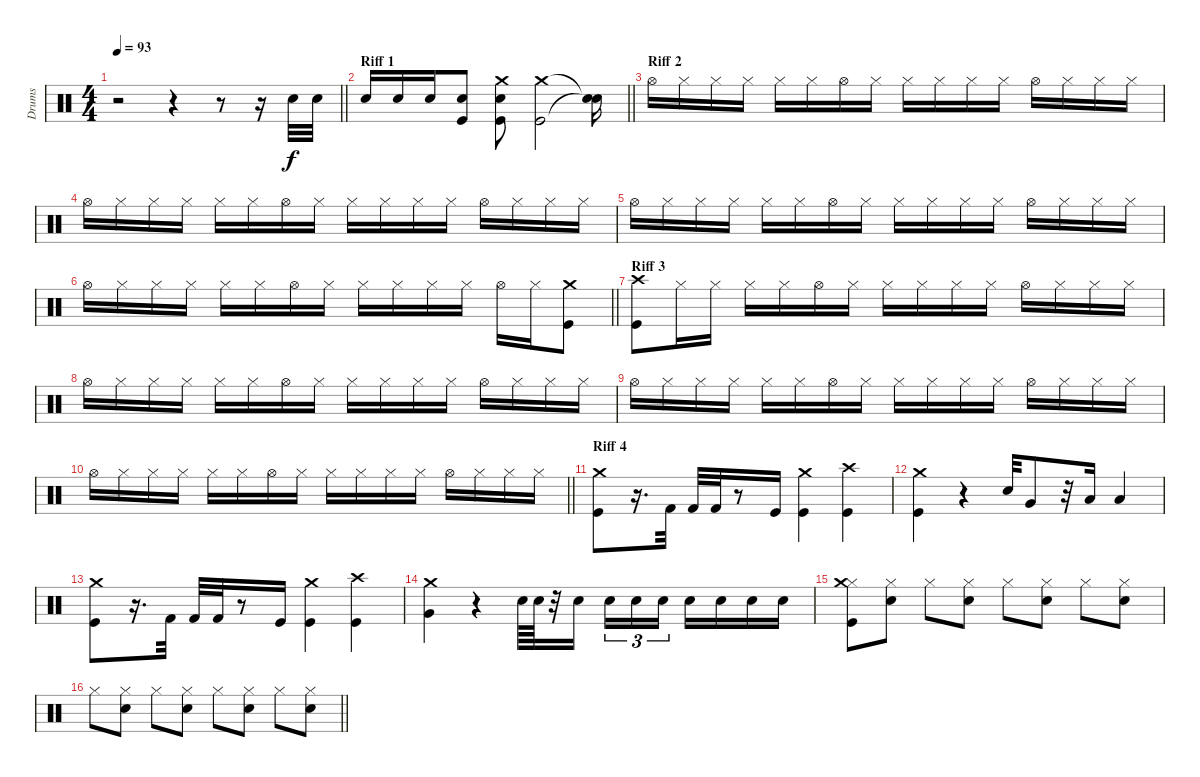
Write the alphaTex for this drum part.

\track ("Drums" "Drums") {instrument percussion}
\staff {score}
\articulation defaults
\ts (4 4)
\tempo 93
\clef neutral
\barLineRight lightlight
\ks c
r.2{dy f} r.4 r.8 r.16 "Electric Snare (hit)".32 "Electric Snare (hit)".32 |
\section ("" "Riff 1")
\barLineRight lightlight "Electric Snare (hit)".16 "Electric Snare (hit)".16 "Electric Snare (hit)".16
("Electric Snare (hit)" "Kick (hit)").8 ("Electric Snare (hit)" "Kick (hit)" "Crash medium (hit)").8 ("Kick (hit)" "Crash medium (hit)").2 ("Snare (hit)"{t} "Snare (hit)"{t}).16 |
\section ("" "Riff 2")
"Hi-Hat (open)".16 "Hi-Hat (closed)".16 "Hi-Hat (closed)".16 "Hi-Hat (closed)".16 "Hi-Hat (closed)".16 "Hi-Hat (closed)".16 "Hi-Hat (open)".16 "Hi-Hat (closed)".16 "Hi-Hat (closed)".16 "Hi-Hat (closed)".16 "Hi-Hat (closed)".16 "Hi-Hat (closed)".16 "Hi-Hat (open)".16 "Hi-Hat (closed)".16 "Hi-Hat (closed)".16 "Hi-Hat (closed)".16 |
"Hi-Hat (open)".16 "Hi-Hat (closed)".16 "Hi-Hat (closed)".16 "Hi-Hat (closed)".16 "Hi-Hat (closed)".16 "Hi-Hat (closed)".16 "Hi-Hat (open)".16 "Hi-Hat (closed)".16 "Hi-Hat (closed)".16 "Hi-Hat (closed)".16 "Hi-Hat (closed)".16 "Hi-Hat (closed)".16 "Hi-Hat (open)".16 "Hi-Hat (closed)".16 "Hi-Hat (closed)".16 "Hi-Hat (closed)".16 |
"Hi-Hat (open)".16 "Hi-Hat (closed)".16 "Hi-Hat (closed)".16 "Hi-Hat (closed)".16 "Hi-Hat (closed)".16 "Hi-Hat (closed)".16 "Hi-Hat (open)".16 "Hi-Hat (closed)".16 "Hi-Hat (closed)".16 "Hi-Hat (closed)".16 "Hi-Hat (closed)".16 "Hi-Hat (closed)".16 "Hi-Hat (open)".16 "Hi-Hat (closed)".16 "Hi-Hat (closed)".16 "Hi-Hat (closed)".16 |
\barLineRight lightlight "Hi-Hat (open)".16 "Hi-Hat (closed)".16 "Hi-Hat (closed)".16 "Hi-Hat (closed)".16 "Hi-Hat (closed)".16 "Hi-Hat (closed)".16 "Hi-Hat (open)".16 "Hi-Hat (closed)".16 "Hi-Hat (closed)".16 "Hi-Hat (closed)".16 "Hi-Hat (closed)".16 "Hi-Hat (closed)".16 "Hi-Hat (open)".16 "Hi-Hat (closed)".16
("Kick (hit)" "Crash medium (hit)").8 |
\section ("" "Riff 3")
("Kick (hit)" "Crash high (hit)").8 "Hi-Hat (closed)".16 "Hi-Hat (closed)".16 "Hi-Hat (closed)".16 "Hi-Hat (closed)".16 "Hi-Hat (open)".16 "Hi-Hat (closed)".16 "Hi-Hat (closed)".16 "Hi-Hat (closed)".16 "Hi-Hat (closed)".16 "Hi-Hat (closed)".16 "Hi-Hat (open)".16 "Hi-Hat (closed)".16 "Hi-Hat (closed)".16 "Hi-Hat (closed)".16 |
"Hi-Hat (open)".16 "Hi-Hat (closed)".16 "Hi-Hat (closed)".16 "Hi-Hat (closed)".16 "Hi-Hat (closed)".16 "Hi-Hat (closed)".16 "Hi-Hat (open)".16 "Hi-Hat (closed)".16 "Hi-Hat (closed)".16 "Hi-Hat (closed)".16 "Hi-Hat (closed)".16 "Hi-Hat (closed)".16 "Hi-Hat (open)".16 "Hi-Hat (closed)".16 "Hi-Hat (closed)".16 "Hi-Hat (closed)".16 |
"Hi-Hat (open)".16 "Hi-Hat (closed)".16 "Hi-Hat (closed)".16 "Hi-Hat (closed)".16 "Hi-Hat (closed)".16 "Hi-Hat (closed)".16 "Hi-Hat (open)".16 "Hi-Hat (closed)".16 "Hi-Hat (closed)".16 "Hi-Hat (closed)".16 "Hi-Hat (closed)".16 "Hi-Hat (closed)".16 "Hi-Hat (open)".16 "Hi-Hat (closed)".16 "Hi-Hat (closed)".16 "Hi-Hat (closed)".16 |
\barLineRight lightlight "Hi-Hat (open)".16 "Hi-Hat (closed)".16 "Hi-Hat (closed)".16 "Hi-Hat (closed)".16 "Hi-Hat (closed)".16 "Hi-Hat (closed)".16 "Hi-Hat (open)".16 "Hi-Hat (closed)".16 "Hi-Hat (closed)".16 "Hi-Hat (closed)".16 "Hi-Hat (closed)".16 "Hi-Hat (closed)".16 "Hi-Hat (open)".16 "Hi-Hat (closed)".16 "Hi-Hat (closed)".16 "Hi-Hat (closed)".16
|
\section ("" "Riff 4")
("Kick (hit)" "Crash medium (hit)").8 r.16{d} "Kick (hit) 2".32 "Kick (hit) 2".32 "Kick (hit) 2".32 r.8 "Kick (hit)".16 ("Kick (hit)" "Crash medium (hit)").4 ("Kick (hit)" "Crash high (hit)").4 |
("Kick (hit)" "Crash medium (hit)").4 r.4 "Snare (hit) 2".32 "Very Low Tom (hit)".8 r.32 "Low Tom (hit)".16 "Low Floor Tom (hit)".4 |
("Kick (hit)" "Crash medium (hit)").8 r.16{d} "Kick (hit) 2".32 "Kick (hit) 2".32 "Kick (hit) 2".32 r.8 "Kick (hit)".16 ("Kick (hit)" "Crash medium (hit)").4 ("Kick (hit)" "Crash high (hit)").4 |
("Crash medium (hit)" "Very Low Tom (hit)").4 r.4 "Electric Snare (hit)".64 "Electric Snare (hit)".64 r.32 "Electric Snare (hit)".16{beam splitsecondary} "Electric Snare (hit)".16{tu (3 2)} "Electric Snare (hit)".16{tu (3 2)} "Electric Snare (hit)".16{tu (3 2)} "Electric Snare (hit)".16 "Electric Snare (hit)".16 "Electric Snare (hit)".16 "Electric Snare (hit)".16 |
("Hi-Hat (closed)" "Kick (hit)" "Crash medium (hit)").8 ("Hi-Hat (closed)" "Snare (hit) 2").8 "Hi-Hat (closed)".8 ("Hi-Hat (closed)" "Snare (hit) 2").8 "Hi-Hat (closed)".8 ("Hi-Hat (closed)" "Snare (hit) 2").8 "Hi-Hat (closed)".8 ("Hi-Hat (closed)" "Snare (hit) 2").8 |
\barLineRight lightlight "Hi-Hat (closed)".8
("Hi-Hat (closed)" "Snare (hit) 2").8 "Hi-Hat (closed)".8 ("Hi-Hat (closed)" "Snare (hit) 2").8 "Hi-Hat (closed)".8 ("Hi-Hat (closed)" "Snare (hit) 2").8 "Hi-Hat (closed)".8 ("Hi-Hat (closed)" "Snare (hit) 2").8
